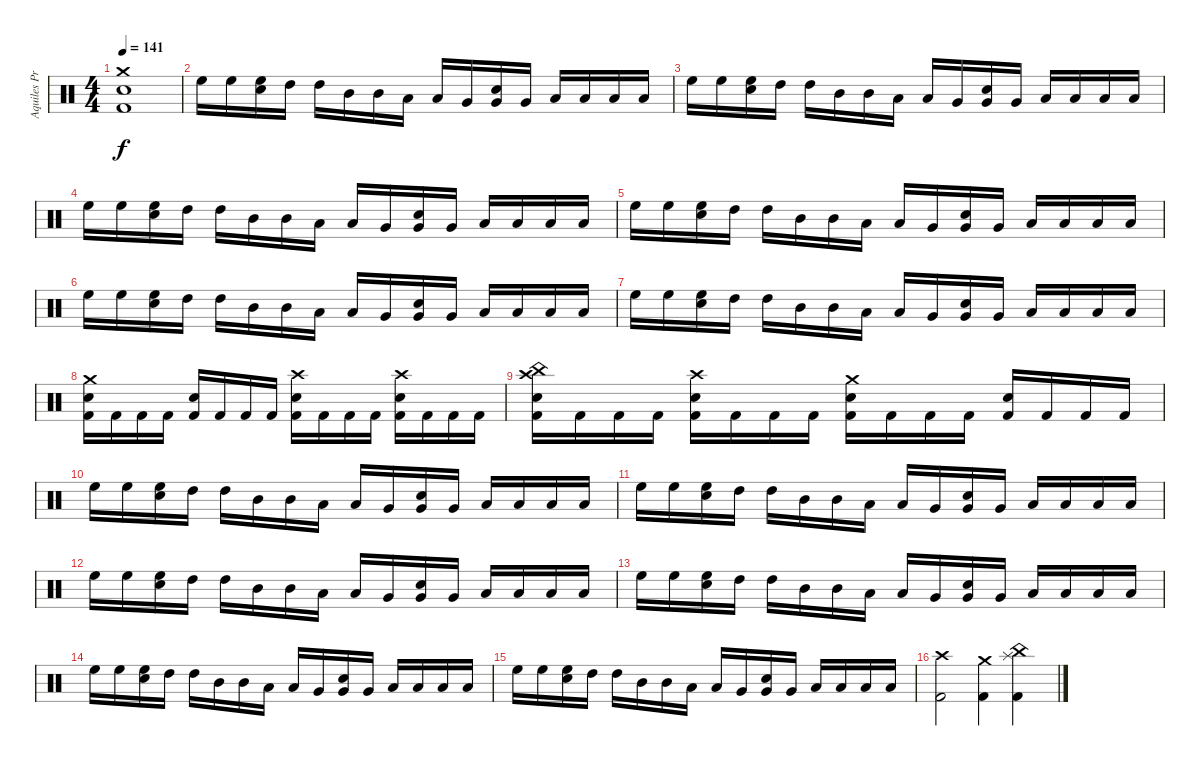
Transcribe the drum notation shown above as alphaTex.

\track ("Aquiles Priester" "Aquiles Pr") {instrument percussion}
\staff {score}
\articulation defaults
\ts (4 4)
\tempo 141
\clef neutral
\ks c
("Crash medium (hit)" "Electric Snare (hit)" "Kick (hit) 2").1{dy f} |
"High Floor Tom (hit)".16 "High Floor Tom (hit)".16 ("Electric Snare (hit)" "High Floor Tom (hit)").16 "High Tom (hit)".16 "High Tom (hit)".16 "Mid Tom (hit)".16 "Mid Tom (hit)".16 "Low Tom (hit)".16 "Low Tom (hit)".16 "Very Low Tom (hit)".16 ("Electric Snare (hit)" "Very Low Tom (hit)").16 "Very Low Tom (hit)".16 "Low Floor Tom (hit)".16 "Low Floor Tom (hit)".16 "Low Floor Tom (hit)".16 "Low Floor Tom (hit)".16 |
"High Floor Tom (hit)".16 "High Floor Tom (hit)".16 ("Electric Snare (hit)" "High Floor Tom (hit)").16 "High Tom (hit)".16 "High Tom (hit)".16 "Mid Tom (hit)".16 "Mid Tom (hit)".16 "Low Tom (hit)".16 "Low Tom (hit)".16 "Very Low Tom (hit)".16 ("Electric Snare (hit)" "Very Low Tom (hit)").16 "Very Low Tom (hit)".16 "Low Floor Tom (hit)".16 "Low Floor Tom (hit)".16 "Low Floor Tom (hit)".16 "Low Floor Tom (hit)".16 |
"High Floor Tom (hit)".16 "High Floor Tom (hit)".16 ("Electric Snare (hit)" "High Floor Tom (hit)").16 "High Tom (hit)".16 "High Tom (hit)".16 "Mid Tom (hit)".16 "Mid Tom (hit)".16 "Low Tom (hit)".16 "Low Tom (hit)".16 "Very Low Tom (hit)".16 ("Electric Snare (hit)" "Very Low Tom (hit)").16 "Very Low Tom (hit)".16 "Low Floor Tom (hit)".16 "Low Floor Tom (hit)".16 "Low Floor Tom (hit)".16 "Low Floor Tom (hit)".16 |
"High Floor Tom (hit)".16 "High Floor Tom (hit)".16 ("Electric Snare (hit)" "High Floor Tom (hit)").16 "High Tom (hit)".16 "High Tom (hit)".16 "Mid Tom (hit)".16 "Mid Tom (hit)".16 "Low Tom (hit)".16 "Low Tom (hit)".16 "Very Low Tom (hit)".16 ("Electric Snare (hit)" "Very Low Tom (hit)").16 "Very Low Tom (hit)".16 "Low Floor Tom (hit)".16 "Low Floor Tom (hit)".16 "Low Floor Tom (hit)".16 "Low Floor Tom (hit)".16 |
"High Floor Tom (hit)".16 "High Floor Tom (hit)".16 ("Electric Snare (hit)" "High Floor Tom (hit)").16 "High Tom (hit)".16 "High Tom (hit)".16 "Mid Tom (hit)".16 "Mid Tom (hit)".16 "Low Tom (hit)".16 "Low Tom (hit)".16 "Very Low Tom (hit)".16 ("Electric Snare (hit)" "Very Low Tom (hit)").16 "Very Low Tom (hit)".16 "Low Floor Tom (hit)".16 "Low Floor Tom (hit)".16 "Low Floor Tom (hit)".16 "Low Floor Tom (hit)".16 |
"High Floor Tom (hit)".16 "High Floor Tom (hit)".16 ("Electric Snare (hit)" "High Floor Tom (hit)").16 "High Tom (hit)".16 "High Tom (hit)".16 "Mid Tom (hit)".16 "Mid Tom (hit)".16 "Low Tom (hit)".16 "Low Tom (hit)".16 "Very Low Tom (hit)".16 ("Electric Snare (hit)" "Very Low Tom (hit)").16 "Very Low Tom (hit)".16 "Low Floor Tom (hit)".16 "Low Floor Tom (hit)".16 "Low Floor Tom (hit)".16 "Low Floor Tom (hit)".16 |
("Crash medium (hit)" "Electric Snare (hit)" "Kick (hit) 2").16 "Kick (hit) 2".16 "Kick (hit) 2".16 "Kick (hit) 2".16 ("Electric Snare (hit)" "Kick (hit) 2").16 "Kick (hit) 2".16 "Kick (hit) 2".16 "Kick (hit) 2".16 ("Crash high (hit)" "Electric Snare (hit)" "Kick (hit) 2").16 "Kick (hit) 2".16 "Kick (hit) 2".16 "Kick (hit) 2".16 ("Crash high (hit)" "Electric Snare (hit)" "Kick (hit) 2").16 "Kick (hit) 2".16 "Kick (hit) 2".16 "Kick (hit) 2".16 |
("China (hit)" "Crash high (hit)" "Electric Snare (hit)" "Kick (hit) 2").16 "Kick (hit) 2".16 "Kick (hit) 2".16 "Kick (hit) 2".16 ("Crash high (hit)" "Electric Snare (hit)" "Kick (hit) 2").16 "Kick (hit) 2".16 "Kick (hit) 2".16 "Kick (hit) 2".16 ("Crash medium (hit)" "Electric Snare (hit)" "Kick (hit) 2").16 "Kick (hit) 2".16 "Kick (hit) 2".16 "Kick (hit) 2".16 ("Electric Snare (hit)" "Kick (hit) 2").16 "Kick (hit) 2".16 "Kick (hit) 2".16 "Kick (hit) 2".16 |
"High Floor Tom (hit)".16 "High Floor Tom (hit)".16 ("Electric Snare (hit)" "High Floor Tom (hit)").16 "High Tom (hit)".16 "High Tom (hit)".16 "Mid Tom (hit)".16 "Mid Tom (hit)".16 "Low Tom (hit)".16 "Low Tom (hit)".16 "Very Low Tom (hit)".16 ("Electric Snare (hit)" "Very Low Tom (hit)").16 "Very Low Tom (hit)".16 "Low Floor Tom (hit)".16 "Low Floor Tom (hit)".16 "Low Floor Tom (hit)".16 "Low Floor Tom (hit)".16 |
"High Floor Tom (hit)".16 "High Floor Tom (hit)".16 ("Electric Snare (hit)" "High Floor Tom (hit)").16 "High Tom (hit)".16 "High Tom (hit)".16 "Mid Tom (hit)".16 "Mid Tom (hit)".16 "Low Tom (hit)".16 "Low Tom (hit)".16 "Very Low Tom (hit)".16 ("Electric Snare (hit)" "Very Low Tom (hit)").16 "Very Low Tom (hit)".16 "Low Floor Tom (hit)".16 "Low Floor Tom (hit)".16 "Low Floor Tom (hit)".16 "Low Floor Tom (hit)".16 |
"High Floor Tom (hit)".16 "High Floor Tom (hit)".16 ("Electric Snare (hit)" "High Floor Tom (hit)").16 "High Tom (hit)".16 "High Tom (hit)".16 "Mid Tom (hit)".16 "Mid Tom (hit)".16 "Low Tom (hit)".16 "Low Tom (hit)".16 "Very Low Tom (hit)".16 ("Electric Snare (hit)" "Very Low Tom (hit)").16 "Very Low Tom (hit)".16 "Low Floor Tom (hit)".16 "Low Floor Tom (hit)".16 "Low Floor Tom (hit)".16 "Low Floor Tom (hit)".16 |
"High Floor Tom (hit)".16 "High Floor Tom (hit)".16 ("Electric Snare (hit)" "High Floor Tom (hit)").16 "High Tom (hit)".16 "High Tom (hit)".16 "Mid Tom (hit)".16 "Mid Tom (hit)".16 "Low Tom (hit)".16 "Low Tom (hit)".16 "Very Low Tom (hit)".16 ("Electric Snare (hit)" "Very Low Tom (hit)").16 "Very Low Tom (hit)".16 "Low Floor Tom (hit)".16 "Low Floor Tom (hit)".16 "Low Floor Tom (hit)".16 "Low Floor Tom (hit)".16 |
"High Floor Tom (hit)".16 "High Floor Tom (hit)".16 ("Electric Snare (hit)" "High Floor Tom (hit)").16 "High Tom (hit)".16 "High Tom (hit)".16 "Mid Tom (hit)".16 "Mid Tom (hit)".16 "Low Tom (hit)".16 "Low Tom (hit)".16 "Very Low Tom (hit)".16 ("Electric Snare (hit)" "Very Low Tom (hit)").16 "Very Low Tom (hit)".16 "Low Floor Tom (hit)".16 "Low Floor Tom (hit)".16 "Low Floor Tom (hit)".16 "Low Floor Tom (hit)".16 |
"High Floor Tom (hit)".16 "High Floor Tom (hit)".16 ("Electric Snare (hit)" "High Floor Tom (hit)").16 "High Tom (hit)".16 "High Tom (hit)".16 "Mid Tom (hit)".16 "Mid Tom (hit)".16 "Low Tom (hit)".16 "Low Tom (hit)".16 "Very Low Tom (hit)".16 ("Electric Snare (hit)" "Very Low Tom (hit)").16 "Very Low Tom (hit)".16 "Low Floor Tom (hit)".16 "Low Floor Tom (hit)".16 "Low Floor Tom (hit)".16 "Low Floor Tom (hit)".16 |
("Crash high (hit)" "Kick (hit) 2").2 ("Crash medium (hit)" "Kick (hit) 2").4 ("Splash (hit)" "China (hit)" "Kick (hit) 2").4
